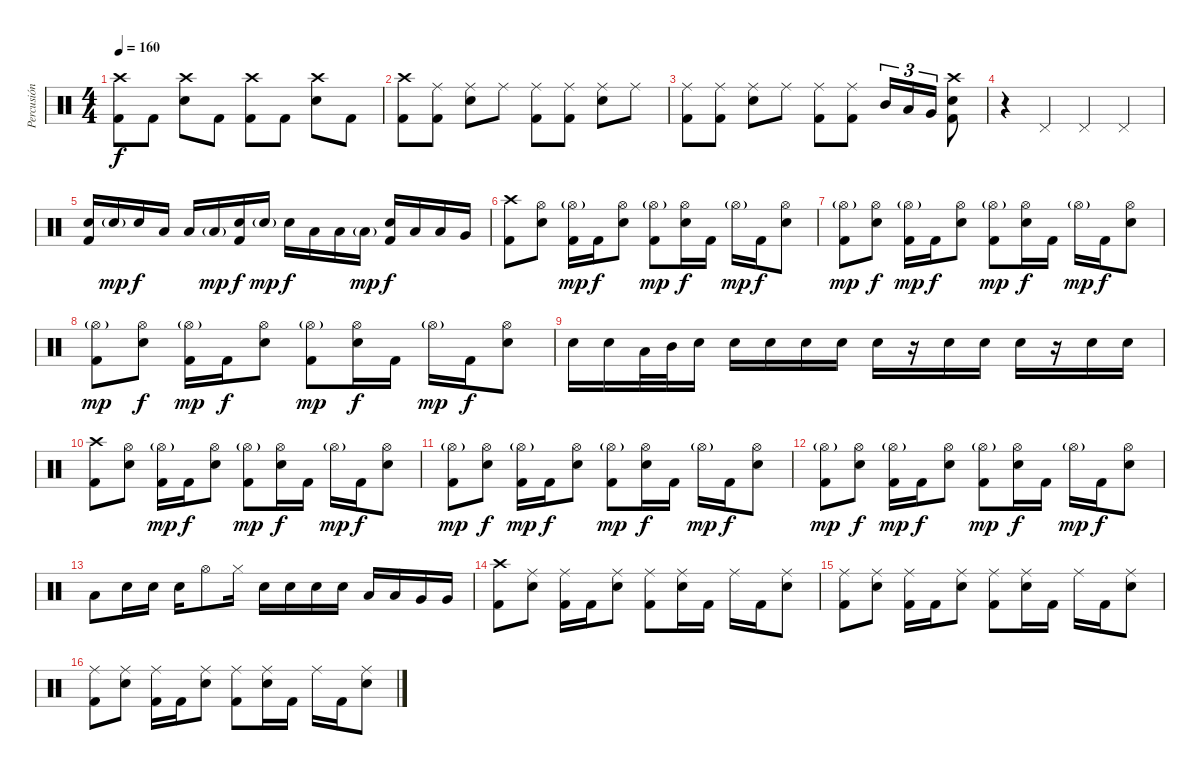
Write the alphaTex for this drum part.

\track ("Percusión" "Percusión") {instrument percussion}
\staff {score}
\articulation defaults
\ts (4 4)
\tempo 160
\clef neutral
\ks c
("Crash high (hit)" "Kick (hit) 2").8{dy f} "Kick (hit) 2".8 ("Crash high (hit)" "Electric Snare (hit)").8 "Kick (hit) 2".8 ("Crash high (hit)" "Kick (hit) 2").8 "Kick (hit) 2".8 ("Crash high (hit)" "Electric Snare (hit)").8 "Kick (hit) 2".8 |
("Crash high (hit)" "Kick (hit) 2").8 ("Ride (middle)" "Kick (hit) 2").8 ("Ride (middle)" "Electric Snare (hit)").8 "Ride (middle)".8 ("Ride (middle)" "Kick (hit) 2").8 ("Ride (middle)" "Kick (hit) 2").8 ("Ride (middle)" "Electric Snare (hit)").8 "Ride (middle)".8 |
("Ride (middle)" "Kick (hit) 2").8 ("Ride (middle)" "Kick (hit) 2").8 ("Ride (middle)" "Electric Snare (hit)").8 "Ride (middle)".8 ("Ride (middle)" "Kick (hit) 2").8 ("Ride (middle)" "Kick (hit) 2").8 "Mid Tom (hit)".16{tu (3 2)} "Low Tom (hit)".16{tu (3 2)} "Very Low Tom (hit)".16{tu (3 2)} ("Crash high (hit)" "Electric Snare (hit)" "Kick (hit) 2").8 |
r.4 "Pedal Hi-Hat (hit)".4 "Pedal Hi-Hat (hit)".4 "Pedal Hi-Hat (hit)".4 |
("Electric Snare (hit)" "Kick (hit) 2").16 "Electric Snare (hit)"{g}.16{dy mp} "Electric Snare (hit)".16{dy f} "Low Tom (hit)".16 "Low Tom (hit)".16 "Low Tom (hit)"{g}.16{dy mp} ("Electric Snare (hit)" "Kick (hit) 2").16{dy f} "Electric Snare (hit)"{g}.16{dy mp} "Electric Snare (hit)".16{dy f} "Low Tom (hit)".16 "Low Tom (hit)".16 "Low Tom (hit)"{g}.16{dy mp} ("Electric Snare (hit)" "Kick (hit) 2").16{dy f} "Low Tom (hit)".16 "Low Tom (hit)".16 "Very Low Tom (hit)".16 |
("Crash high (hit)" "Kick (hit) 2").8 ("Hi-Hat (open)" "Electric Snare (hit)").8 ("Hi-Hat (open)"{g} "Kick (hit) 2").16{dy mp} "Kick (hit) 2".16{dy f} ("Hi-Hat (open)" "Electric Snare (hit)").8 ("Hi-Hat (open)"{g} "Kick (hit) 2").8{dy mp} ("Hi-Hat (open)" "Electric Snare (hit)").16{dy f} "Kick (hit) 2".16 "Hi-Hat (open)"{g}.16{dy mp} "Kick (hit) 2".16{dy f} ("Hi-Hat (open)" "Electric Snare (hit)").8 |
("Hi-Hat (open)"{g} "Kick (hit) 2").8{dy mp} ("Hi-Hat (open)" "Electric Snare (hit)").8{dy f} ("Hi-Hat (open)"{g} "Kick (hit) 2").16{dy mp} "Kick (hit) 2".16{dy f} ("Hi-Hat (open)" "Electric Snare (hit)").8 ("Hi-Hat (open)"{g} "Kick (hit) 2").8{dy mp} ("Hi-Hat (open)" "Electric Snare (hit)").16{dy f} "Kick (hit) 2".16 "Hi-Hat (open)"{g}.16{dy mp} "Kick (hit) 2".16{dy f} ("Hi-Hat (open)" "Electric Snare (hit)").8 |
("Hi-Hat (open)"{g} "Kick (hit) 2").8{dy mp} ("Hi-Hat (open)" "Electric Snare (hit)").8{dy f} ("Hi-Hat (open)"{g} "Kick (hit) 2").16{dy mp} "Kick (hit) 2".16{dy f} ("Hi-Hat (open)" "Electric Snare (hit)").8 ("Hi-Hat (open)"{g} "Kick (hit) 2").8{dy mp} ("Hi-Hat (open)" "Electric Snare (hit)").16{dy f} "Kick (hit) 2".16 "Hi-Hat (open)"{g}.16{dy mp} "Kick (hit) 2".16{dy f} ("Hi-Hat (open)" "Electric Snare (hit)").8 |
"Electric Snare (hit)".16 "Electric Snare (hit)".16 "Low Tom (hit)".32 "Mid Tom (hit)".32 "Electric Snare (hit)".16 "Electric Snare (hit)".16 "Electric Snare (hit)".16 "Electric Snare (hit)".16 "Electric Snare (hit)".16 "Electric Snare (hit)".16 r.16 "Electric Snare (hit)".16 "Electric Snare (hit)".16 "Electric Snare (hit)".16 r.16 "Electric Snare (hit)".16 "Electric Snare (hit)".16 |
("Crash high (hit)" "Kick (hit) 2").8 ("Hi-Hat (open)" "Electric Snare (hit)").8 ("Hi-Hat (open)"{g} "Kick (hit) 2").16{dy mp} "Kick (hit) 2".16{dy f} ("Hi-Hat (open)" "Electric Snare (hit)").8 ("Hi-Hat (open)"{g} "Kick (hit) 2").8{dy mp} ("Hi-Hat (open)" "Electric Snare (hit)").16{dy f} "Kick (hit) 2".16 "Hi-Hat (open)"{g}.16{dy mp} "Kick (hit) 2".16{dy f} ("Hi-Hat (open)" "Electric Snare (hit)").8 |
("Hi-Hat (open)"{g} "Kick (hit) 2").8{dy mp} ("Hi-Hat (open)" "Electric Snare (hit)").8{dy f} ("Hi-Hat (open)"{g} "Kick (hit) 2").16{dy mp} "Kick (hit) 2".16{dy f} ("Hi-Hat (open)" "Electric Snare (hit)").8 ("Hi-Hat (open)"{g} "Kick (hit) 2").8{dy mp} ("Hi-Hat (open)" "Electric Snare (hit)").16{dy f} "Kick (hit) 2".16 "Hi-Hat (open)"{g}.16{dy mp} "Kick (hit) 2".16{dy f} ("Hi-Hat (open)" "Electric Snare (hit)").8 |
("Hi-Hat (open)"{g} "Kick (hit) 2").8{dy mp} ("Hi-Hat (open)" "Electric Snare (hit)").8{dy f} ("Hi-Hat (open)"{g} "Kick (hit) 2").16{dy mp} "Kick (hit) 2".16{dy f} ("Hi-Hat (open)" "Electric Snare (hit)").8 ("Hi-Hat (open)"{g} "Kick (hit) 2").8{dy mp} ("Hi-Hat (open)" "Electric Snare (hit)").16{dy f} "Kick (hit) 2".16 "Hi-Hat (open)"{g}.16{dy mp} "Kick (hit) 2".16{dy f} ("Hi-Hat (open)" "Electric Snare (hit)").8 |
"Low Tom (hit)".8 "Electric Snare (hit)".16 "Electric Snare (hit)".16 "Electric Snare (hit)".16 "Hi-Hat (open)".8 "Hi-Hat (closed)".16 "Electric Snare (hit)".16 "Electric Snare (hit)".16 "Electric Snare (hit)".16 "Electric Snare (hit)".16 "Low Tom (hit)".16 "Low Tom (hit)".16 "Very Low Tom (hit)".16 "Very Low Tom (hit)".16 |
("Crash high (hit)" "Kick (hit) 2").8 ("Ride (middle)" "Electric Snare (hit)").8 ("Ride (middle)" "Kick (hit) 2").16 "Kick (hit) 2".16 ("Ride (middle)" "Electric Snare (hit)").8 ("Ride (middle)" "Kick (hit) 2").8 ("Ride (middle)" "Electric Snare (hit)").16 "Kick (hit) 2".16 "Ride (middle)".16 "Kick (hit) 2".16 ("Ride (middle)" "Electric Snare (hit)").8 |
("Ride (middle)" "Kick (hit) 2").8 ("Ride (middle)" "Electric Snare (hit)").8 ("Ride (middle)" "Kick (hit) 2").16 "Kick (hit) 2".16 ("Ride (middle)" "Electric Snare (hit)").8 ("Ride (middle)" "Kick (hit) 2").8 ("Ride (middle)" "Electric Snare (hit)").16 "Kick (hit) 2".16 "Ride (middle)".16 "Kick (hit) 2".16 ("Ride (middle)" "Electric Snare (hit)").8 |
("Ride (middle)" "Kick (hit) 2").8 ("Ride (middle)" "Electric Snare (hit)").8 ("Ride (middle)" "Kick (hit) 2").16 "Kick (hit) 2".16 ("Ride (middle)" "Electric Snare (hit)").8 ("Ride (middle)" "Kick (hit) 2").8 ("Ride (middle)" "Electric Snare (hit)").16 "Kick (hit) 2".16 "Ride (middle)".16 "Kick (hit) 2".16 ("Ride (middle)" "Electric Snare (hit)").8
